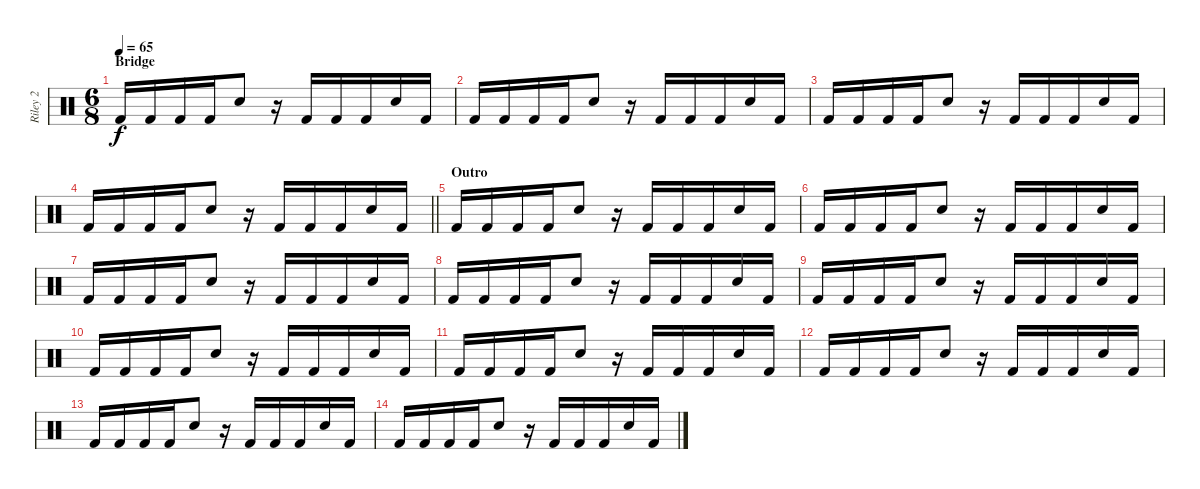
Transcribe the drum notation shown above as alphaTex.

\track ("Riley 2" "Riley 2") {instrument percussion}
\staff {score}
\articulation defaults
\ts (6 8)
\section ("" "Bridge")
\tempo 65
\clef neutral
\ks c "Kick (hit) 2".16{dy f} "Kick (hit) 2".16 "Kick (hit) 2".16 "Kick (hit) 2".16 "Electric Snare (hit)".8
r.16 "Kick (hit) 2".16 "Kick (hit) 2".16 "Kick (hit) 2".16 "Electric Snare (hit)".16 "Kick (hit) 2".16 |
"Kick (hit) 2".16 "Kick (hit) 2".16 "Kick (hit) 2".16 "Kick (hit) 2".16 "Electric Snare (hit)".8 r.16 "Kick (hit) 2".16 "Kick (hit) 2".16 "Kick (hit) 2".16 "Electric Snare (hit)".16 "Kick (hit) 2".16 |
"Kick (hit) 2".16 "Kick (hit) 2".16 "Kick (hit) 2".16 "Kick (hit) 2".16 "Electric Snare (hit)".8 r.16 "Kick (hit) 2".16 "Kick (hit) 2".16 "Kick (hit) 2".16 "Electric Snare (hit)".16 "Kick (hit) 2".16 |
\barLineRight lightlight "Kick (hit) 2".16 "Kick (hit) 2".16 "Kick (hit) 2".16 "Kick (hit) 2".16 "Electric Snare (hit)".8
r.16 "Kick (hit) 2".16 "Kick (hit) 2".16 "Kick (hit) 2".16 "Electric Snare (hit)".16 "Kick (hit) 2".16 |
\section ("" "Outro")
"Kick (hit) 2".16 "Kick (hit) 2".16 "Kick (hit) 2".16 "Kick (hit) 2".16 "Electric Snare (hit)".8 r.16 "Kick (hit) 2".16 "Kick (hit) 2".16 "Kick (hit) 2".16 "Electric Snare (hit)".16 "Kick (hit) 2".16 |
"Kick (hit) 2".16 "Kick (hit) 2".16 "Kick (hit) 2".16 "Kick (hit) 2".16 "Electric Snare (hit)".8 r.16 "Kick (hit) 2".16 "Kick (hit) 2".16 "Kick (hit) 2".16 "Electric Snare (hit)".16 "Kick (hit) 2".16 |
"Kick (hit) 2".16 "Kick (hit) 2".16 "Kick (hit) 2".16 "Kick (hit) 2".16 "Electric Snare (hit)".8 r.16 "Kick (hit) 2".16 "Kick (hit) 2".16 "Kick (hit) 2".16 "Electric Snare (hit)".16 "Kick (hit) 2".16 |
"Kick (hit) 2".16 "Kick (hit) 2".16 "Kick (hit) 2".16 "Kick (hit) 2".16 "Electric Snare (hit)".8 r.16 "Kick (hit) 2".16 "Kick (hit) 2".16 "Kick (hit) 2".16 "Electric Snare (hit)".16 "Kick (hit) 2".16 |
"Kick (hit) 2".16 "Kick (hit) 2".16 "Kick (hit) 2".16 "Kick (hit) 2".16 "Electric Snare (hit)".8 r.16 "Kick (hit) 2".16 "Kick (hit) 2".16 "Kick (hit) 2".16 "Electric Snare (hit)".16 "Kick (hit) 2".16 |
"Kick (hit) 2".16 "Kick (hit) 2".16 "Kick (hit) 2".16 "Kick (hit) 2".16 "Electric Snare (hit)".8 r.16 "Kick (hit) 2".16 "Kick (hit) 2".16 "Kick (hit) 2".16 "Electric Snare (hit)".16 "Kick (hit) 2".16 |
"Kick (hit) 2".16 "Kick (hit) 2".16 "Kick (hit) 2".16 "Kick (hit) 2".16 "Electric Snare (hit)".8 r.16 "Kick (hit) 2".16 "Kick (hit) 2".16 "Kick (hit) 2".16 "Electric Snare (hit)".16 "Kick (hit) 2".16 |
"Kick (hit) 2".16 "Kick (hit) 2".16 "Kick (hit) 2".16 "Kick (hit) 2".16 "Electric Snare (hit)".8 r.16 "Kick (hit) 2".16 "Kick (hit) 2".16 "Kick (hit) 2".16 "Electric Snare (hit)".16 "Kick (hit) 2".16 |
"Kick (hit) 2".16 "Kick (hit) 2".16 "Kick (hit) 2".16 "Kick (hit) 2".16 "Electric Snare (hit)".8 r.16 "Kick (hit) 2".16 "Kick (hit) 2".16 "Kick (hit) 2".16 "Electric Snare (hit)".16 "Kick (hit) 2".16 |
"Kick (hit) 2".16 "Kick (hit) 2".16 "Kick (hit) 2".16 "Kick (hit) 2".16 "Electric Snare (hit)".8 r.16 "Kick (hit) 2".16 "Kick (hit) 2".16 "Kick (hit) 2".16 "Electric Snare (hit)".16 "Kick (hit) 2".16
